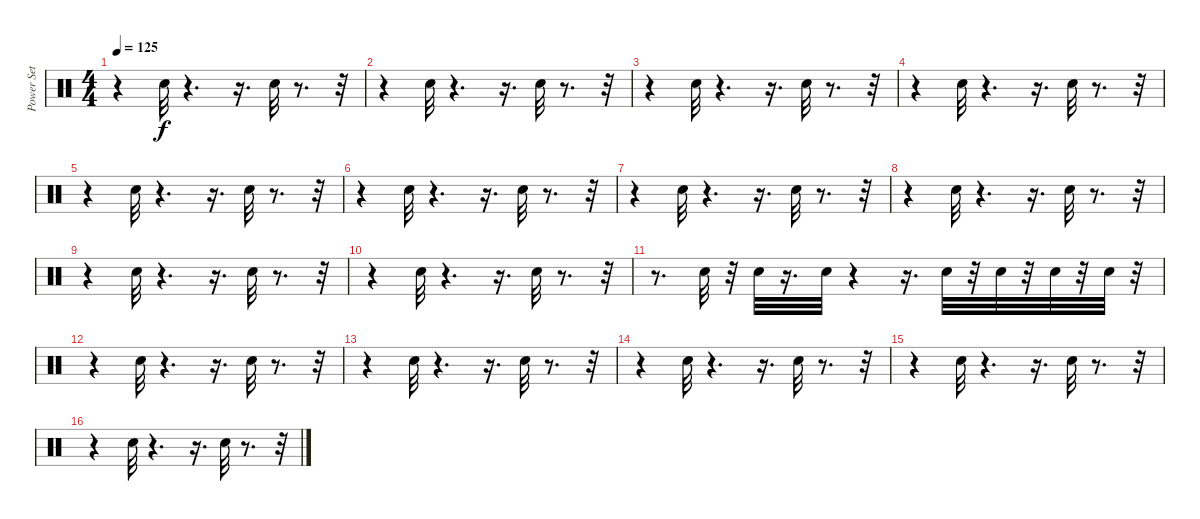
\track ("Power Set" "Power Set") {instrument percussion}
\staff {score}
\articulation defaults
\ts (4 4)
\tempo 125
\clef neutral
\ks c
r.4{dy f} "Snare (hit) 2".32 r.4{d} r.16{d} "Snare (hit) 2".32 r.8{d} r.32 |
r.4 "Snare (hit) 2".32 r.4{d} r.16{d} "Snare (hit) 2".32 r.8{d} r.32 |
r.4 "Snare (hit) 2".32 r.4{d} r.16{d} "Snare (hit) 2".32 r.8{d} r.32 |
r.4 "Snare (hit) 2".32 r.4{d} r.16{d} "Snare (hit) 2".32 r.8{d} r.32 |
r.4 "Snare (hit) 2".32 r.4{d} r.16{d} "Snare (hit) 2".32 r.8{d} r.32 |
r.4 "Snare (hit) 2".32 r.4{d} r.16{d} "Snare (hit) 2".32 r.8{d} r.32 |
r.4 "Snare (hit) 2".32 r.4{d} r.16{d} "Snare (hit) 2".32 r.8{d} r.32 |
r.4 "Snare (hit) 2".32 r.4{d} r.16{d} "Snare (hit) 2".32 r.8{d} r.32 |
r.4 "Snare (hit) 2".32 r.4{d} r.16{d} "Snare (hit) 2".32 r.8{d} r.32 |
r.4 "Snare (hit) 2".32 r.4{d} r.16{d} "Snare (hit) 2".32 r.8{d} r.32 |
r.8{d} "Electric Snare (hit)".32 r.32 "Electric Snare (hit)".32 r.16{d} "Electric Snare (hit)".32 r.4 r.16{d} "Electric Snare (hit)".32 r.32 "Electric Snare (hit)".32 r.32 "Electric Snare (hit)".32 r.32 "Electric Snare (hit)".32 r.32 |
r.4 "Snare (hit) 2".32 r.4{d} r.16{d} "Snare (hit) 2".32 r.8{d} r.32 |
r.4 "Snare (hit) 2".32 r.4{d} r.16{d} "Snare (hit) 2".32 r.8{d} r.32 |
r.4 "Snare (hit) 2".32 r.4{d} r.16{d} "Snare (hit) 2".32 r.8{d} r.32 |
r.4 "Snare (hit) 2".32 r.4{d} r.16{d} "Snare (hit) 2".32 r.8{d} r.32 |
r.4 "Snare (hit) 2".32 r.4{d} r.16{d} "Snare (hit) 2".32 r.8{d} r.32
